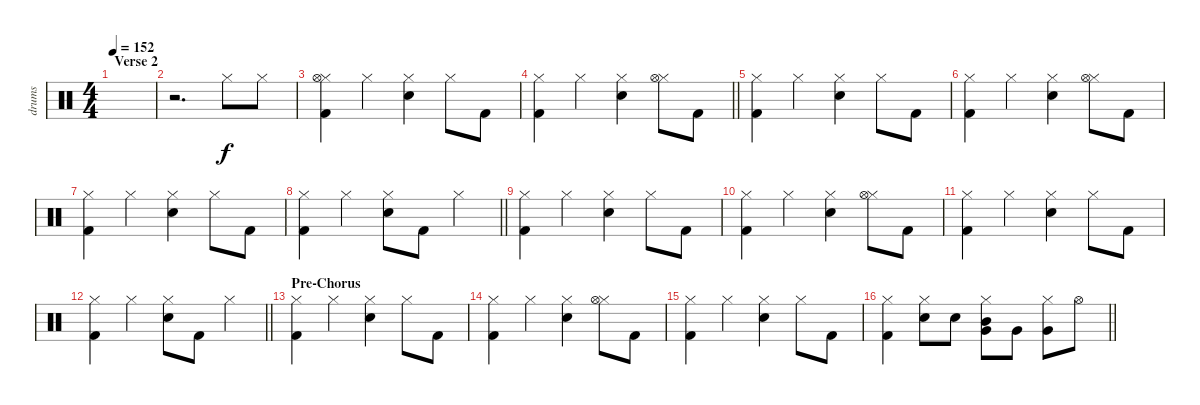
\track ("drums" "drums") {instrument percussion}
\staff {score}
\articulation defaults
\ts (4 4)
\section ("" "Verse 2")
\tempo 152
\clef neutral
\ks c
|
r.2{d} "Hi-Hat (closed)".8 "Hi-Hat (closed)".8 |
("Hi-Hat (closed)" "Hi-Hat (open)" "Kick (hit) 2").4 "Hi-Hat (closed)".4 ("Hi-Hat (closed)" "Electric Snare (hit)").4 "Hi-Hat (closed)".8 "Kick (hit) 2".8 |
\barLineRight lightlight
("Hi-Hat (closed)" "Kick (hit) 2").4 "Hi-Hat (closed)".4 ("Hi-Hat (closed)" "Electric Snare (hit)").4 ("Hi-Hat (closed)" "Hi-Hat (open)").8 "Kick (hit) 2".8 |
("Hi-Hat (closed)" "Kick (hit) 2").4 "Hi-Hat (closed)".4 ("Hi-Hat (closed)" "Electric Snare (hit)").4 "Hi-Hat (closed)".8 "Kick (hit) 2".8 |
("Hi-Hat (closed)" "Kick (hit) 2").4 "Hi-Hat (closed)".4 ("Hi-Hat (closed)" "Electric Snare (hit)").4 ("Hi-Hat (closed)" "Hi-Hat (open)").8 "Kick (hit) 2".8 |
("Hi-Hat (closed)" "Kick (hit) 2").4 "Hi-Hat (closed)".4 ("Hi-Hat (closed)" "Electric Snare (hit)").4 "Hi-Hat (closed)".8 "Kick (hit) 2".8 |
\barLineRight lightlight
("Hi-Hat (closed)" "Kick (hit) 2").4 "Hi-Hat (closed)".4 ("Hi-Hat (closed)" "Electric Snare (hit)").8 "Kick (hit) 2".8 "Hi-Hat (closed)".4 |
("Hi-Hat (closed)" "Kick (hit) 2").4 "Hi-Hat (closed)".4 ("Hi-Hat (closed)" "Electric Snare (hit)").4 "Hi-Hat (closed)".8 "Kick (hit) 2".8 |
("Hi-Hat (closed)" "Kick (hit) 2").4 "Hi-Hat (closed)".4 ("Hi-Hat (closed)" "Electric Snare (hit)").4 ("Hi-Hat (closed)" "Hi-Hat (open)").8 "Kick (hit) 2".8 |
("Hi-Hat (closed)" "Kick (hit) 2").4 "Hi-Hat (closed)".4 ("Hi-Hat (closed)" "Electric Snare (hit)").4 "Hi-Hat (closed)".8 "Kick (hit) 2".8 |
\barLineRight lightlight
("Hi-Hat (closed)" "Kick (hit) 2").4 "Hi-Hat (closed)".4 ("Hi-Hat (closed)" "Electric Snare (hit)").8 "Kick (hit) 2".8 "Hi-Hat (closed)".4 |
\section ("" "Pre-Chorus")
("Hi-Hat (closed)" "Kick (hit) 2").4 "Hi-Hat (closed)".4 ("Hi-Hat (closed)" "Electric Snare (hit)").4 "Hi-Hat (closed)".8 "Kick (hit) 2".8 |
("Hi-Hat (closed)" "Kick (hit) 2").4 "Hi-Hat (closed)".4 ("Hi-Hat (closed)" "Electric Snare (hit)").4 ("Hi-Hat (closed)" "Hi-Hat (open)").8 "Kick (hit) 2".8 |
("Hi-Hat (closed)" "Kick (hit) 2").4 "Hi-Hat (closed)".4 ("Hi-Hat (closed)" "Electric Snare (hit)").4 "Hi-Hat (closed)".8 "Kick (hit) 2".8 |
\barLineRight lightlight
("Hi-Hat (closed)" "Kick (hit) 2").4 ("Hi-Hat (closed)" "Electric Snare (hit)").8 "Electric Snare (hit)".8 ("Hi-Hat (closed)" "Very Low Tom (hit)" "Mid Tom (hit)").8 "Very Low Tom (hit)".8 ("Hi-Hat (closed)" "Very Low Tom (hit)").8 "Hi-Hat (open)".8
